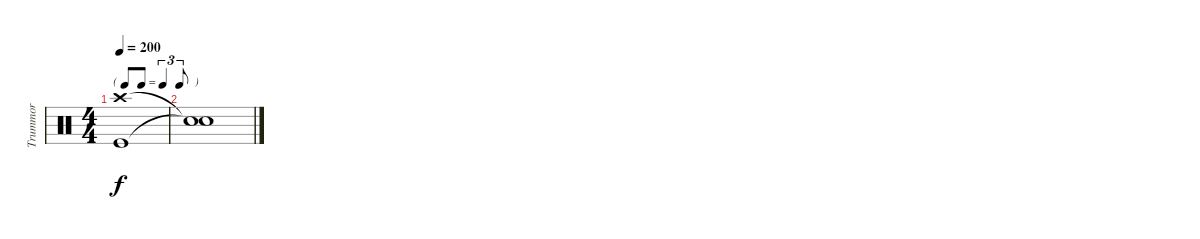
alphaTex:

\track ("Trummor" "Trummor") {instrument percussion}
\staff {score}
\articulation defaults
\ts (4 4)
\tf triplet8th
\tempo 200
\clef neutral
\ks c
("Crash high (hit)" "Kick (hit)").1{dy f} |
("Snare (hit)"{t} "Snare (hit)"{t}).1
